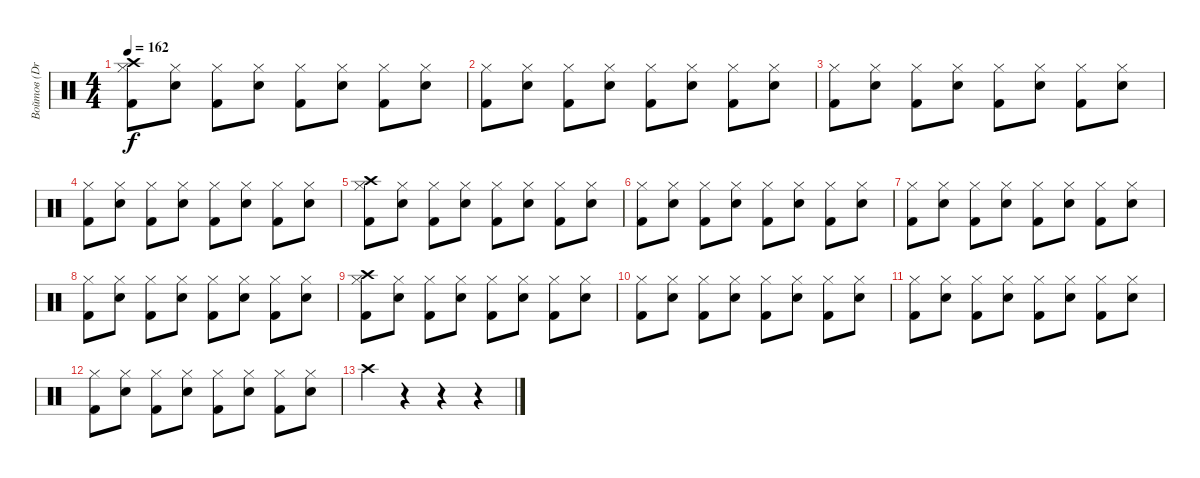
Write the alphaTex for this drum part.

\track ("Войтов (Drums)" "Войтов (Dr") {instrument percussion}
\staff {score}
\articulation defaults
\ts (4 4)
\tempo 162
\clef neutral
\ks c
("Hi-Hat (closed)" "Kick (hit) 2" "Crash high (hit)").8{dy f} ("Hi-Hat (closed)" "Electric Snare (hit)").8 ("Hi-Hat (closed)" "Kick (hit) 2").8 ("Hi-Hat (closed)" "Electric Snare (hit)").8 ("Hi-Hat (closed)" "Kick (hit) 2").8 ("Hi-Hat (closed)" "Electric Snare (hit)").8 ("Hi-Hat (closed)" "Kick (hit) 2").8 ("Hi-Hat (closed)" "Electric Snare (hit)").8 |
("Hi-Hat (closed)" "Kick (hit) 2").8 ("Hi-Hat (closed)" "Electric Snare (hit)").8 ("Hi-Hat (closed)" "Kick (hit) 2").8 ("Hi-Hat (closed)" "Electric Snare (hit)").8 ("Hi-Hat (closed)" "Kick (hit) 2").8 ("Hi-Hat (closed)" "Electric Snare (hit)").8 ("Hi-Hat (closed)" "Kick (hit) 2").8 ("Hi-Hat (closed)" "Electric Snare (hit)").8 |
("Hi-Hat (closed)" "Kick (hit) 2").8 ("Hi-Hat (closed)" "Electric Snare (hit)").8 ("Hi-Hat (closed)" "Kick (hit) 2").8 ("Hi-Hat (closed)" "Electric Snare (hit)").8 ("Hi-Hat (closed)" "Kick (hit) 2").8 ("Hi-Hat (closed)" "Electric Snare (hit)").8 ("Hi-Hat (closed)" "Kick (hit) 2").8 ("Hi-Hat (closed)" "Electric Snare (hit)").8 |
("Hi-Hat (closed)" "Kick (hit) 2").8 ("Hi-Hat (closed)" "Electric Snare (hit)").8 ("Hi-Hat (closed)" "Kick (hit) 2").8 ("Hi-Hat (closed)" "Electric Snare (hit)").8 ("Hi-Hat (closed)" "Kick (hit) 2").8 ("Hi-Hat (closed)" "Electric Snare (hit)").8 ("Hi-Hat (closed)" "Kick (hit) 2").8 ("Hi-Hat (closed)" "Electric Snare (hit)").8 |
("Hi-Hat (closed)" "Kick (hit) 2" "Crash high (hit)").8 ("Hi-Hat (closed)" "Electric Snare (hit)").8 ("Hi-Hat (closed)" "Kick (hit) 2").8 ("Hi-Hat (closed)" "Electric Snare (hit)").8 ("Hi-Hat (closed)" "Kick (hit) 2").8 ("Hi-Hat (closed)" "Electric Snare (hit)").8 ("Hi-Hat (closed)" "Kick (hit) 2").8 ("Hi-Hat (closed)" "Electric Snare (hit)").8 |
("Hi-Hat (closed)" "Kick (hit) 2").8 ("Hi-Hat (closed)" "Electric Snare (hit)").8 ("Hi-Hat (closed)" "Kick (hit) 2").8 ("Hi-Hat (closed)" "Electric Snare (hit)").8 ("Hi-Hat (closed)" "Kick (hit) 2").8 ("Hi-Hat (closed)" "Electric Snare (hit)").8 ("Hi-Hat (closed)" "Kick (hit) 2").8 ("Hi-Hat (closed)" "Electric Snare (hit)").8 |
("Hi-Hat (closed)" "Kick (hit) 2").8 ("Hi-Hat (closed)" "Electric Snare (hit)").8 ("Hi-Hat (closed)" "Kick (hit) 2").8 ("Hi-Hat (closed)" "Electric Snare (hit)").8 ("Hi-Hat (closed)" "Kick (hit) 2").8 ("Hi-Hat (closed)" "Electric Snare (hit)").8 ("Hi-Hat (closed)" "Kick (hit) 2").8 ("Hi-Hat (closed)" "Electric Snare (hit)").8 |
("Hi-Hat (closed)" "Kick (hit) 2").8 ("Hi-Hat (closed)" "Electric Snare (hit)").8 ("Hi-Hat (closed)" "Kick (hit) 2").8 ("Hi-Hat (closed)" "Electric Snare (hit)").8 ("Hi-Hat (closed)" "Kick (hit) 2").8 ("Hi-Hat (closed)" "Electric Snare (hit)").8 ("Hi-Hat (closed)" "Kick (hit) 2").8 ("Hi-Hat (closed)" "Electric Snare (hit)").8 |
("Hi-Hat (closed)" "Kick (hit) 2" "Crash high (hit)").8 ("Hi-Hat (closed)" "Electric Snare (hit)").8 ("Hi-Hat (closed)" "Kick (hit) 2").8 ("Hi-Hat (closed)" "Electric Snare (hit)").8 ("Hi-Hat (closed)" "Kick (hit) 2").8 ("Hi-Hat (closed)" "Electric Snare (hit)").8 ("Hi-Hat (closed)" "Kick (hit) 2").8 ("Hi-Hat (closed)" "Electric Snare (hit)").8 |
("Hi-Hat (closed)" "Kick (hit) 2").8 ("Hi-Hat (closed)" "Electric Snare (hit)").8 ("Hi-Hat (closed)" "Kick (hit) 2").8 ("Hi-Hat (closed)" "Electric Snare (hit)").8 ("Hi-Hat (closed)" "Kick (hit) 2").8 ("Hi-Hat (closed)" "Electric Snare (hit)").8 ("Hi-Hat (closed)" "Kick (hit) 2").8 ("Hi-Hat (closed)" "Electric Snare (hit)").8 |
("Hi-Hat (closed)" "Kick (hit) 2").8 ("Hi-Hat (closed)" "Electric Snare (hit)").8 ("Hi-Hat (closed)" "Kick (hit) 2").8 ("Hi-Hat (closed)" "Electric Snare (hit)").8 ("Hi-Hat (closed)" "Kick (hit) 2").8 ("Hi-Hat (closed)" "Electric Snare (hit)").8 ("Hi-Hat (closed)" "Kick (hit) 2").8 ("Hi-Hat (closed)" "Electric Snare (hit)").8 |
("Hi-Hat (closed)" "Kick (hit) 2").8 ("Hi-Hat (closed)" "Electric Snare (hit)").8 ("Hi-Hat (closed)" "Kick (hit) 2").8 ("Hi-Hat (closed)" "Electric Snare (hit)").8 ("Hi-Hat (closed)" "Kick (hit) 2").8 ("Hi-Hat (closed)" "Electric Snare (hit)").8 ("Hi-Hat (closed)" "Kick (hit) 2").8 ("Hi-Hat (closed)" "Electric Snare (hit)").8 |
"Crash high (hit)".4 r.4 r.4 r.4
